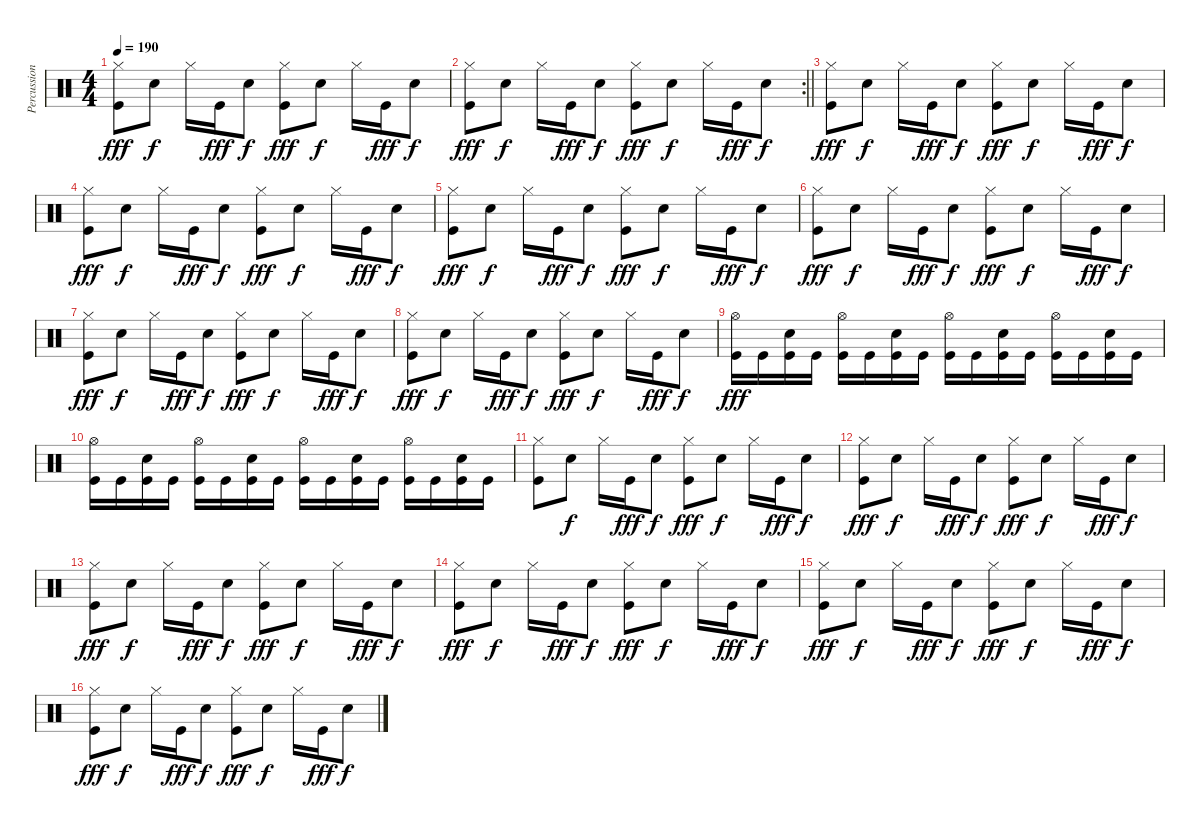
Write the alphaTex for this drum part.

\track ("Percussioni" "Percussion") {instrument percussion}
\staff {score}
\articulation defaults
\ts (4 4)
\tempo 190
\clef neutral
\ks c
("Kick (hit)" "Hi-Hat (closed)").8{dy fff} "Snare (hit) 2".8{dy f} "Hi-Hat (closed)".16 "Kick (hit)".16{dy fff} "Snare (hit) 2".8{dy f} ("Kick (hit)" "Hi-Hat (closed)").8{dy fff} "Snare (hit) 2".8{dy f} "Hi-Hat (closed)".16 "Kick (hit)".16{dy fff} "Snare (hit) 2".8{dy f} |
\rc 2
\barLineRight lightlight
("Kick (hit)" "Hi-Hat (closed)").8{dy fff} "Snare (hit) 2".8{dy f} "Hi-Hat (closed)".16 "Kick (hit)".16{dy fff} "Snare (hit) 2".8{dy f} ("Kick (hit)" "Hi-Hat (closed)").8{dy fff} "Snare (hit) 2".8{dy f} "Hi-Hat (closed)".16 "Kick (hit)".16{dy fff} "Snare (hit) 2".8{dy f} |
("Kick (hit)" "Hi-Hat (closed)").8{dy fff} "Snare (hit) 2".8{dy f} "Hi-Hat (closed)".16 "Kick (hit)".16{dy fff} "Snare (hit) 2".8{dy f} ("Kick (hit)" "Hi-Hat (closed)").8{dy fff} "Snare (hit) 2".8{dy f} "Hi-Hat (closed)".16 "Kick (hit)".16{dy fff} "Snare (hit) 2".8{dy f} |
("Kick (hit)" "Hi-Hat (closed)").8{dy fff} "Snare (hit) 2".8{dy f} "Hi-Hat (closed)".16 "Kick (hit)".16{dy fff} "Snare (hit) 2".8{dy f} ("Kick (hit)" "Hi-Hat (closed)").8{dy fff} "Snare (hit) 2".8{dy f} "Hi-Hat (closed)".16 "Kick (hit)".16{dy fff} "Snare (hit) 2".8{dy f} |
("Kick (hit)" "Hi-Hat (closed)").8{dy fff} "Snare (hit) 2".8{dy f} "Hi-Hat (closed)".16 "Kick (hit)".16{dy fff} "Snare (hit) 2".8{dy f} ("Kick (hit)" "Hi-Hat (closed)").8{dy fff} "Snare (hit) 2".8{dy f} "Hi-Hat (closed)".16 "Kick (hit)".16{dy fff} "Snare (hit) 2".8{dy f} |
("Kick (hit)" "Hi-Hat (closed)").8{dy fff} "Snare (hit) 2".8{dy f} "Hi-Hat (closed)".16 "Kick (hit)".16{dy fff} "Snare (hit) 2".8{dy f} ("Kick (hit)" "Hi-Hat (closed)").8{dy fff} "Snare (hit) 2".8{dy f} "Hi-Hat (closed)".16 "Kick (hit)".16{dy fff} "Snare (hit) 2".8{dy f} |
("Kick (hit)" "Hi-Hat (closed)").8{dy fff} "Snare (hit) 2".8{dy f} "Hi-Hat (closed)".16 "Kick (hit)".16{dy fff} "Snare (hit) 2".8{dy f} ("Kick (hit)" "Hi-Hat (closed)").8{dy fff} "Snare (hit) 2".8{dy f} "Hi-Hat (closed)".16 "Kick (hit)".16{dy fff} "Snare (hit) 2".8{dy f} |
("Kick (hit)" "Hi-Hat (closed)").8{dy fff} "Snare (hit) 2".8{dy f} "Hi-Hat (closed)".16 "Kick (hit)".16{dy fff} "Snare (hit) 2".8{dy f} ("Kick (hit)" "Hi-Hat (closed)").8{dy fff} "Snare (hit) 2".8{dy f} "Hi-Hat (closed)".16 "Kick (hit)".16{dy fff} "Snare (hit) 2".8{dy f} |
("Hi-Hat (open)" "Kick (hit)").16{dy fff} "Kick (hit)".16 ("Snare (hit) 2" "Kick (hit)").16 "Kick (hit)".16 ("Hi-Hat (open)" "Kick (hit)").16 "Kick (hit)".16 ("Snare (hit) 2" "Kick (hit)").16 "Kick (hit)".16 ("Hi-Hat (open)" "Kick (hit)").16 "Kick (hit)".16 ("Snare (hit) 2" "Kick (hit)").16 "Kick (hit)".16 ("Hi-Hat (open)" "Kick (hit)").16 "Kick (hit)".16 ("Snare (hit) 2" "Kick (hit)").16 "Kick (hit)".16 |
("Hi-Hat (open)" "Kick (hit)").16 "Kick (hit)".16 ("Snare (hit) 2" "Kick (hit)").16 "Kick (hit)".16 ("Hi-Hat (open)" "Kick (hit)").16 "Kick (hit)".16 ("Snare (hit) 2" "Kick (hit)").16 "Kick (hit)".16 ("Hi-Hat (open)" "Kick (hit)").16 "Kick (hit)".16 ("Snare (hit) 2" "Kick (hit)").16 "Kick (hit)".16 ("Hi-Hat (open)" "Kick (hit)").16 "Kick (hit)".16 ("Snare (hit) 2" "Kick (hit)").16 "Kick (hit)".16 |
("Kick (hit)" "Hi-Hat (closed)").8 "Snare (hit) 2".8{dy f} "Hi-Hat (closed)".16 "Kick (hit)".16{dy fff} "Snare (hit) 2".8{dy f} ("Kick (hit)" "Hi-Hat (closed)").8{dy fff} "Snare (hit) 2".8{dy f} "Hi-Hat (closed)".16 "Kick (hit)".16{dy fff} "Snare (hit) 2".8{dy f} |
("Kick (hit)" "Hi-Hat (closed)").8{dy fff} "Snare (hit) 2".8{dy f} "Hi-Hat (closed)".16 "Kick (hit)".16{dy fff} "Snare (hit) 2".8{dy f} ("Kick (hit)" "Hi-Hat (closed)").8{dy fff} "Snare (hit) 2".8{dy f} "Hi-Hat (closed)".16 "Kick (hit)".16{dy fff} "Snare (hit) 2".8{dy f} |
("Kick (hit)" "Hi-Hat (closed)").8{dy fff} "Snare (hit) 2".8{dy f} "Hi-Hat (closed)".16 "Kick (hit)".16{dy fff} "Snare (hit) 2".8{dy f} ("Kick (hit)" "Hi-Hat (closed)").8{dy fff} "Snare (hit) 2".8{dy f} "Hi-Hat (closed)".16 "Kick (hit)".16{dy fff} "Snare (hit) 2".8{dy f} |
("Kick (hit)" "Hi-Hat (closed)").8{dy fff} "Snare (hit) 2".8{dy f} "Hi-Hat (closed)".16 "Kick (hit)".16{dy fff} "Snare (hit) 2".8{dy f} ("Kick (hit)" "Hi-Hat (closed)").8{dy fff} "Snare (hit) 2".8{dy f} "Hi-Hat (closed)".16 "Kick (hit)".16{dy fff} "Snare (hit) 2".8{dy f} |
("Kick (hit)" "Hi-Hat (closed)").8{dy fff} "Snare (hit) 2".8{dy f} "Hi-Hat (closed)".16 "Kick (hit)".16{dy fff} "Snare (hit) 2".8{dy f} ("Kick (hit)" "Hi-Hat (closed)").8{dy fff} "Snare (hit) 2".8{dy f} "Hi-Hat (closed)".16 "Kick (hit)".16{dy fff} "Snare (hit) 2".8{dy f} |
("Kick (hit)" "Hi-Hat (closed)").8{dy fff} "Snare (hit) 2".8{dy f} "Hi-Hat (closed)".16 "Kick (hit)".16{dy fff} "Snare (hit) 2".8{dy f} ("Kick (hit)" "Hi-Hat (closed)").8{dy fff} "Snare (hit) 2".8{dy f} "Hi-Hat (closed)".16 "Kick (hit)".16{dy fff} "Snare (hit) 2".8{dy f}
